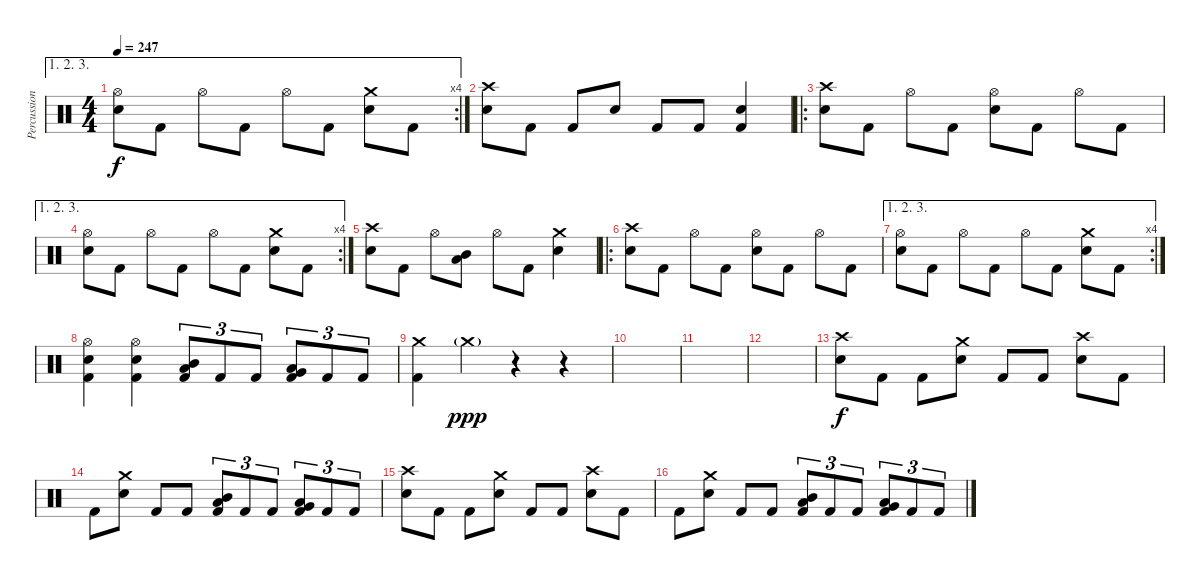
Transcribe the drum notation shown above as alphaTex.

\track ("Percussion" "Percussion") {instrument percussion}
\staff {score}
\articulation defaults
\ae (1 2 3)
\rc 4
\ts (4 4)
\tempo 247
\clef neutral
\ks c
("Hi-Hat (open)" "Snare (hit) 2").8{dy f} "Kick (hit) 2".8 "Hi-Hat (open)".8 "Kick (hit) 2".8 "Hi-Hat (open)".8 "Kick (hit) 2".8 ("Crash medium (hit)" "Snare (hit) 2").8 "Kick (hit) 2".8 |
("Crash high (hit)" "Snare (hit) 2").8 "Kick (hit) 2".8 "Kick (hit) 2".8 "Snare (hit) 2".8 "Kick (hit) 2".8 "Kick (hit) 2".8 ("Snare (hit) 2" "Kick (hit) 2").4 |
\ro
("Crash high (hit)" "Snare (hit) 2").8 "Kick (hit) 2".8 "Hi-Hat (open)".8 "Kick (hit) 2".8 ("Hi-Hat (open)" "Snare (hit) 2").8 "Kick (hit) 2".8 "Hi-Hat (open)".8 "Kick (hit) 2".8 |
\ae (1 2 3)
\rc 4
("Hi-Hat (open)" "Snare (hit) 2").8 "Kick (hit) 2".8 "Hi-Hat (open)".8 "Kick (hit) 2".8 "Hi-Hat (open)".8 "Kick (hit) 2".8 ("Crash medium (hit)" "Snare (hit) 2").8 "Kick (hit) 2".8 |
("Crash high (hit)" "Snare (hit) 2").8 "Kick (hit) 2".8 "Hi-Hat (open)".8 ("Mid Tom (hit)" "Low Tom (hit)").8 "Hi-Hat (open)".8 "Kick (hit) 2".8 ("Crash medium (hit)" "Snare (hit) 2").4 |
\ro
("Crash high (hit)" "Snare (hit) 2").8 "Kick (hit) 2".8 "Hi-Hat (open)".8 "Kick (hit) 2".8 ("Hi-Hat (open)" "Snare (hit) 2").8 "Kick (hit) 2".8 "Hi-Hat (open)".8 "Kick (hit) 2".8 |
\ae (1 2 3)
\rc 4
("Hi-Hat (open)" "Snare (hit) 2").8 "Kick (hit) 2".8 "Hi-Hat (open)".8 "Kick (hit) 2".8 "Hi-Hat (open)".8 "Kick (hit) 2".8 ("Crash medium (hit)" "Snare (hit) 2").8 "Kick (hit) 2".8 |
("Hi-Hat (open)" "Snare (hit) 2" "Kick (hit) 2").4 ("Hi-Hat (open)" "Snare (hit) 2" "Kick (hit) 2").4 ("Low Tom (hit)" "Mid Tom (hit)" "Kick (hit) 2").8{tu (3 2)} "Kick (hit) 2".8{tu (3 2)} "Kick (hit) 2".8{tu (3 2)} ("Very Low Tom (hit)" "Low Tom (hit)" "Kick (hit) 2").8{tu (3 2)} "Kick (hit) 2".8{tu (3 2)} "Kick (hit) 2".8{tu (3 2)} |
("Crash medium (hit)" "Kick (hit) 2").4 "Crash medium (hit)"{g}.4{dy ppp} r.4 r.4 |
|
|
|
("Crash high (hit)" "Snare (hit) 2").8{dy f} "Kick (hit) 2".8 "Kick (hit) 2".8 ("Crash medium (hit)" "Snare (hit) 2").8 "Kick (hit) 2".8 "Kick (hit) 2".8 ("Crash high (hit)" "Snare (hit) 2").8 "Kick (hit) 2".8 |
"Kick (hit) 2".8 ("Crash medium (hit)" "Snare (hit) 2").8 "Kick (hit) 2".8 "Kick (hit) 2".8 ("Low Tom (hit)" "Mid Tom (hit)" "Kick (hit) 2").8{tu (3 2)} "Kick (hit) 2".8{tu (3 2)} "Kick (hit) 2".8{tu (3 2)} ("Very Low Tom (hit)" "Low Tom (hit)" "Kick (hit) 2").8{tu (3 2)} "Kick (hit) 2".8{tu (3 2)} "Kick (hit) 2".8{tu (3 2)} |
("Crash high (hit)" "Snare (hit) 2").8 "Kick (hit) 2".8 "Kick (hit) 2".8 ("Crash medium (hit)" "Snare (hit) 2").8 "Kick (hit) 2".8 "Kick (hit) 2".8 ("Crash high (hit)" "Snare (hit) 2").8 "Kick (hit) 2".8 |
"Kick (hit) 2".8 ("Crash medium (hit)" "Snare (hit) 2").8 "Kick (hit) 2".8 "Kick (hit) 2".8 ("Low Tom (hit)" "Mid Tom (hit)" "Kick (hit) 2").8{tu (3 2)} "Kick (hit) 2".8{tu (3 2)} "Kick (hit) 2".8{tu (3 2)} ("Very Low Tom (hit)" "Low Tom (hit)" "Kick (hit) 2").8{tu (3 2)} "Kick (hit) 2".8{tu (3 2)} "Kick (hit) 2".8{tu (3 2)}
